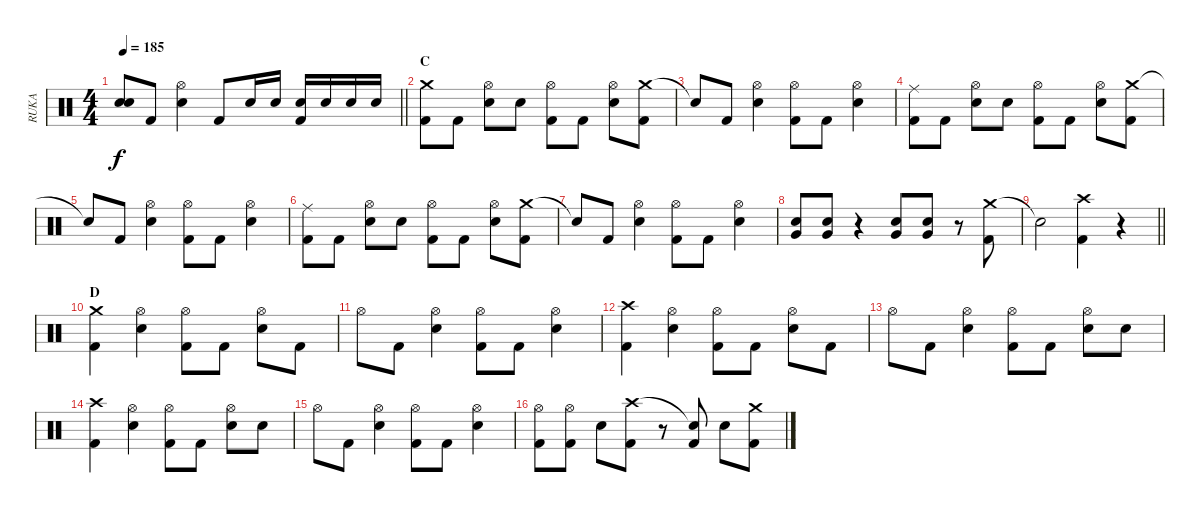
\track ("RUKA" "RUKA") {instrument percussion}
\staff {score}
\articulation defaults
\ts (4 4)
\tempo 185
\clef neutral
\barLineRight lightlight
\ks c
("Snare (hit) 2" "Electric Snare (hit)").8{dy f} "Kick (hit) 2".8 ("Hi-Hat (open)" "Electric Snare (hit)").4 "Kick (hit) 2".8 "Electric Snare (hit)".16 "Electric Snare (hit)".16 ("Electric Snare (hit)" "Kick (hit) 2").16 "Electric Snare (hit)".16 "Electric Snare (hit)".16 "Electric Snare (hit)".16 |
\section ("" "C")
("Crash medium (hit)" "Kick (hit) 2").8 "Kick (hit) 2".8 ("Hi-Hat (open)" "Electric Snare (hit)").8 "Electric Snare (hit)".8 ("Hi-Hat (open)" "Kick (hit) 2").8 "Kick (hit) 2".8 ("Hi-Hat (open)" "Electric Snare (hit)").8 ("Crash medium (hit)" "Kick (hit) 2").8 |
"Snare (hit)"{t}.8 "Kick (hit) 2".8 ("Hi-Hat (open)" "Electric Snare (hit)").4 ("Hi-Hat (open)" "Kick (hit) 2").8 "Kick (hit) 2".8 ("Hi-Hat (open)" "Electric Snare (hit)").4 |
("Ride (middle)" "Kick (hit) 2").8 "Kick (hit) 2".8 ("Hi-Hat (open)" "Electric Snare (hit)").8 "Electric Snare (hit)".8 ("Hi-Hat (open)" "Kick (hit) 2").8 "Kick (hit) 2".8 ("Hi-Hat (open)" "Electric Snare (hit)").8 ("Crash medium (hit)" "Kick (hit) 2").8 |
"Snare (hit)"{t}.8 "Kick (hit) 2".8 ("Hi-Hat (open)" "Electric Snare (hit)").4 ("Hi-Hat (open)" "Kick (hit) 2").8 "Kick (hit) 2".8 ("Hi-Hat (open)" "Electric Snare (hit)").4 |
("Ride (middle)" "Kick (hit) 2").8 "Kick (hit) 2".8 ("Hi-Hat (open)" "Electric Snare (hit)").8 "Electric Snare (hit)".8 ("Hi-Hat (open)" "Kick (hit) 2").8 "Kick (hit) 2".8 ("Hi-Hat (open)" "Electric Snare (hit)").8 ("Crash medium (hit)" "Kick (hit) 2").8 |
"Snare (hit)"{t}.8 "Kick (hit) 2".8 ("Hi-Hat (open)" "Electric Snare (hit)").4 ("Hi-Hat (open)" "Kick (hit) 2").8 "Kick (hit) 2".8 ("Hi-Hat (open)" "Electric Snare (hit)").4 |
("Very Low Tom (hit)" "Electric Snare (hit)").8 ("Very Low Tom (hit)" "Electric Snare (hit)").8 r.4 ("Very Low Tom (hit)" "Electric Snare (hit)").8 ("Very Low Tom (hit)" "Electric Snare (hit)").8 r.8 ("Crash medium (hit)" "Kick (hit) 2").8 |
\barLineRight lightlight "Snare (hit)"{t}.2
("Crash high (hit)" "Kick (hit) 2").4 r.4 |
\section ("" "D")
("Crash medium (hit)" "Kick (hit) 2").4 ("Hi-Hat (open)" "Electric Snare (hit)").4 ("Hi-Hat (open)" "Kick (hit) 2").8 "Kick (hit) 2".8 ("Hi-Hat (open)" "Electric Snare (hit)").8 "Kick (hit) 2".8 |
"Hi-Hat (open)".8 "Kick (hit) 2".8 ("Hi-Hat (open)" "Electric Snare (hit)").4 ("Hi-Hat (open)" "Kick (hit) 2").8 "Kick (hit) 2".8 ("Hi-Hat (open)" "Electric Snare (hit)").4 |
("Crash high (hit)" "Kick (hit) 2").4 ("Hi-Hat (open)" "Electric Snare (hit)").4 ("Hi-Hat (open)" "Kick (hit) 2").8 "Kick (hit) 2".8 ("Hi-Hat (open)" "Electric Snare (hit)").8 "Kick (hit) 2".8 |
"Hi-Hat (open)".8 "Kick (hit) 2".8 ("Hi-Hat (open)" "Electric Snare (hit)").4 ("Hi-Hat (open)" "Kick (hit) 2").8 "Kick (hit) 2".8 ("Hi-Hat (open)" "Electric Snare (hit)").8 "Electric Snare (hit)".8 |
("Crash high (hit)" "Kick (hit) 2").4 ("Hi-Hat (open)" "Electric Snare (hit)").4 ("Hi-Hat (open)" "Kick (hit) 2").8 "Kick (hit) 2".8 ("Hi-Hat (open)" "Electric Snare (hit)").8 "Electric Snare (hit)".8 |
"Hi-Hat (open)".8 "Kick (hit) 2".8 ("Hi-Hat (open)" "Electric Snare (hit)").4 ("Hi-Hat (open)" "Kick (hit) 2").8 "Kick (hit) 2".8 ("Hi-Hat (open)" "Electric Snare (hit)").4 |
("Hi-Hat (open)" "Kick (hit) 2").8 ("Hi-Hat (open)" "Kick (hit) 2").8 "Electric Snare (hit)".8 ("Crash high (hit)" "Kick (hit) 2").8 r.8 ("Snare (hit)"{t} "Kick (hit) 2").8 "Electric Snare (hit)".8 ("Crash medium (hit)" "Kick (hit) 2").8
